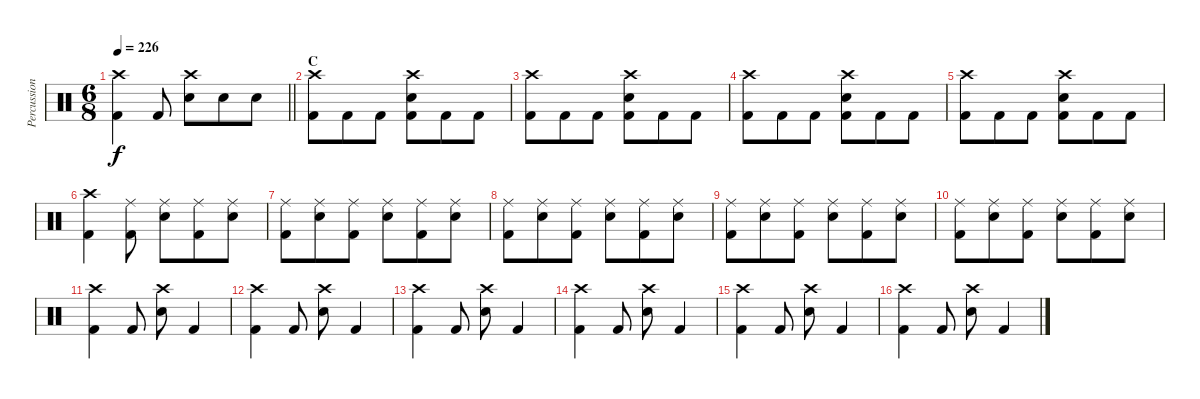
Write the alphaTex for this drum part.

\track ("Percussion" "Percussion") {instrument percussion}
\staff {score}
\articulation defaults
\ts (6 8)
\tempo 226
\clef neutral
\barLineRight lightlight
\ks c
("Crash high (hit)" "Kick (hit) 2").4{dy f} "Kick (hit) 2".8 ("Crash high (hit)" "Electric Snare (hit)").8 "Electric Snare (hit)".8 "Electric Snare (hit)".8 |
\section ("" "C")
("Crash high (hit)" "Kick (hit) 2").8 "Kick (hit) 2".8 "Kick (hit) 2".8 ("Crash high (hit)" "Electric Snare (hit)" "Kick (hit) 2").8 "Kick (hit) 2".8 "Kick (hit) 2".8 |
("Crash high (hit)" "Kick (hit) 2").8 "Kick (hit) 2".8 "Kick (hit) 2".8 ("Crash high (hit)" "Electric Snare (hit)" "Kick (hit) 2").8 "Kick (hit) 2".8 "Kick (hit) 2".8 |
("Crash high (hit)" "Kick (hit) 2").8 "Kick (hit) 2".8 "Kick (hit) 2".8 ("Crash high (hit)" "Electric Snare (hit)" "Kick (hit) 2").8 "Kick (hit) 2".8 "Kick (hit) 2".8 |
("Crash high (hit)" "Kick (hit) 2").8 "Kick (hit) 2".8 "Kick (hit) 2".8 ("Crash high (hit)" "Electric Snare (hit)" "Kick (hit) 2").8 "Kick (hit) 2".8 "Kick (hit) 2".8 |
("Crash high (hit)" "Kick (hit) 2").4 ("Ride (middle)" "Kick (hit) 2").8 ("Ride (middle)" "Electric Snare (hit)").8 ("Ride (middle)" "Kick (hit) 2").8 ("Ride (middle)" "Electric Snare (hit)").8 |
("Ride (middle)" "Kick (hit) 2").8 ("Ride (middle)" "Electric Snare (hit)").8 ("Ride (middle)" "Kick (hit) 2").8 ("Ride (middle)" "Electric Snare (hit)").8 ("Ride (middle)" "Kick (hit) 2").8 ("Ride (middle)" "Electric Snare (hit)").8 |
("Ride (middle)" "Kick (hit) 2").8 ("Ride (middle)" "Electric Snare (hit)").8 ("Ride (middle)" "Kick (hit) 2").8 ("Ride (middle)" "Electric Snare (hit)").8 ("Ride (middle)" "Kick (hit) 2").8 ("Ride (middle)" "Electric Snare (hit)").8 |
("Ride (middle)" "Kick (hit) 2").8 ("Ride (middle)" "Electric Snare (hit)").8 ("Ride (middle)" "Kick (hit) 2").8 ("Ride (middle)" "Electric Snare (hit)").8 ("Ride (middle)" "Kick (hit) 2").8 ("Ride (middle)" "Electric Snare (hit)").8 |
("Ride (middle)" "Kick (hit) 2").8 ("Ride (middle)" "Electric Snare (hit)").8 ("Ride (middle)" "Kick (hit) 2").8 ("Ride (middle)" "Electric Snare (hit)").8 ("Ride (middle)" "Kick (hit) 2").8 ("Ride (middle)" "Electric Snare (hit)").8 |
("Crash high (hit)" "Kick (hit) 2").4 "Kick (hit) 2".8 ("Crash high (hit)" "Electric Snare (hit)").8 "Kick (hit) 2".4 |
("Crash high (hit)" "Kick (hit) 2").4 "Kick (hit) 2".8 ("Crash high (hit)" "Electric Snare (hit)").8 "Kick (hit) 2".4 |
("Crash high (hit)" "Kick (hit) 2").4 "Kick (hit) 2".8 ("Crash high (hit)" "Electric Snare (hit)").8 "Kick (hit) 2".4 |
("Crash high (hit)" "Kick (hit) 2").4 "Kick (hit) 2".8 ("Crash high (hit)" "Electric Snare (hit)").8 "Kick (hit) 2".4 |
("Crash high (hit)" "Kick (hit) 2").4 "Kick (hit) 2".8 ("Crash high (hit)" "Electric Snare (hit)").8 "Kick (hit) 2".4 |
("Crash high (hit)" "Kick (hit) 2").4 "Kick (hit) 2".8 ("Crash high (hit)" "Electric Snare (hit)").8 "Kick (hit) 2".4
